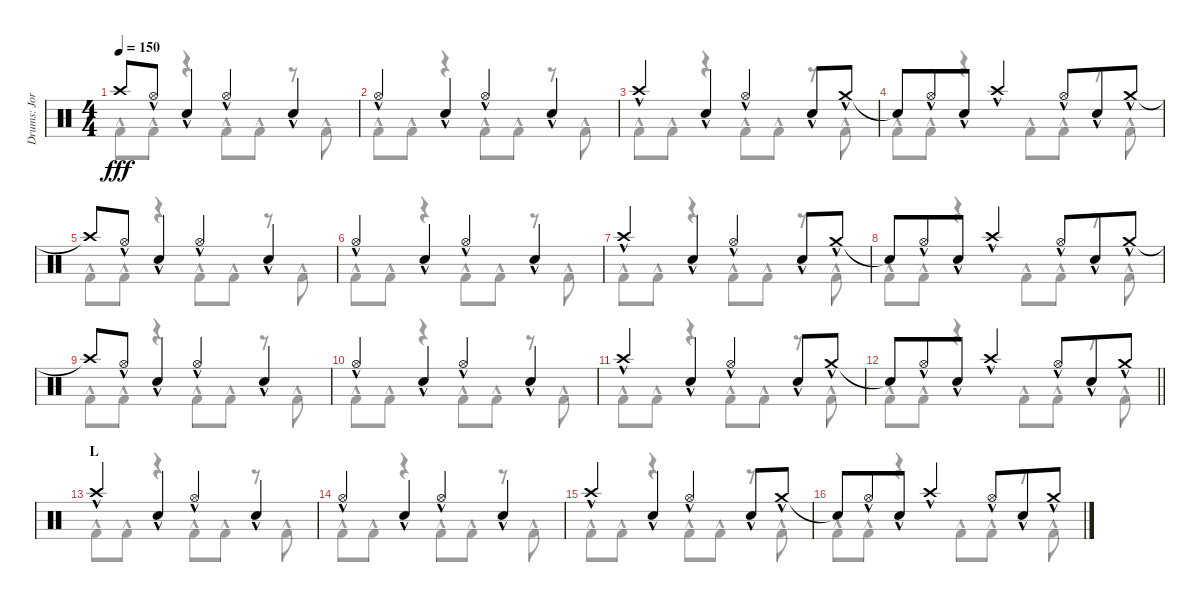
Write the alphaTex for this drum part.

\track ("Drums: Jorg" "Drums: Jor") {instrument percussion}
\staff {score}
\articulation defaults
\voice
\ts (4 4)
\tempo 150
\clef neutral
\ks c "Crash high (hit)"{t}.8{dy fff} "Hi-Hat (open)"{hac}.8{beam merge} "Snare (hit) 2"{hac}.4 "Hi-Hat (open)"{hac}.4{beam merge} "Snare (hit) 2"{hac}.4
|
"Hi-Hat (open)"{hac}.4{beam merge} "Snare (hit) 2"{hac}.4 "Hi-Hat (open)"{hac}.4{beam merge} "Snare (hit) 2"{hac}.4 |
"Crash high (hit)"{hac}.4{beam merge} "Snare (hit) 2"{hac}.4 "Hi-Hat (open)"{hac}.4{beam merge} "Snare (hit) 2"{hac}.8 "Crash medium (hit)"{hac}.8 |
"Snare (hit)"{t}.8 "Hi-Hat (open)"{hac}.8{beam merge} "Snare (hit) 2"{hac}.8 "Crash high (hit)"{hac}.4 "Hi-Hat (open)"{hac}.8{beam merge} "Snare (hit) 2"{hac}.8 "Crash medium (hit)"{hac}.8 |
"Crash high (hit)"{t}.8 "Hi-Hat (open)"{hac}.8{beam merge} "Snare (hit) 2"{hac}.4 "Hi-Hat (open)"{hac}.4{beam merge} "Snare (hit) 2"{hac}.4 |
"Hi-Hat (open)"{hac}.4{beam merge} "Snare (hit) 2"{hac}.4 "Hi-Hat (open)"{hac}.4{beam merge} "Snare (hit) 2"{hac}.4 |
"Crash high (hit)"{hac}.4{beam merge} "Snare (hit) 2"{hac}.4 "Hi-Hat (open)"{hac}.4{beam merge} "Snare (hit) 2"{hac}.8 "Crash medium (hit)"{hac}.8 |
"Snare (hit)"{t}.8 "Hi-Hat (open)"{hac}.8{beam merge} "Snare (hit) 2"{hac}.8 "Crash high (hit)"{hac}.4 "Hi-Hat (open)"{hac}.8{beam merge} "Snare (hit) 2"{hac}.8 "Crash medium (hit)"{hac}.8 |
"Crash high (hit)"{t}.8 "Hi-Hat (open)"{hac}.8{beam merge} "Snare (hit) 2"{hac}.4 "Hi-Hat (open)"{hac}.4{beam merge} "Snare (hit) 2"{hac}.4 |
"Hi-Hat (open)"{hac}.4{beam merge} "Snare (hit) 2"{hac}.4 "Hi-Hat (open)"{hac}.4{beam merge} "Snare (hit) 2"{hac}.4 |
"Crash high (hit)"{hac}.4{beam merge} "Snare (hit) 2"{hac}.4 "Hi-Hat (open)"{hac}.4{beam merge} "Snare (hit) 2"{hac}.8 "Crash medium (hit)"{hac}.8 |
\barLineRight lightlight "Snare (hit)"{t}.8 "Hi-Hat (open)"{hac}.8{beam merge} "Snare (hit) 2"{hac}.8 "Crash high (hit)"{hac}.4 "Hi-Hat (open)"{hac}.8{beam merge} "Snare (hit) 2"{hac}.8 "Crash medium (hit)"{hac}.8
|
\section ("" "L")
"Crash high (hit)"{hac}.4{beam merge} "Snare (hit) 2"{hac}.4 "Hi-Hat (open)"{hac}.4{beam merge} "Snare (hit) 2"{hac}.4 |
"Hi-Hat (open)"{hac}.4{beam merge} "Snare (hit) 2"{hac}.4 "Hi-Hat (open)"{hac}.4{beam merge} "Snare (hit) 2"{hac}.4 |
"Crash high (hit)"{hac}.4{beam merge} "Snare (hit) 2"{hac}.4 "Hi-Hat (open)"{hac}.4{beam merge} "Snare (hit) 2"{hac}.8 "Crash medium (hit)"{hac}.8 |
"Snare (hit)"{t}.8 "Hi-Hat (open)"{hac}.8{beam merge} "Snare (hit) 2"{hac}.8 "Crash high (hit)"{hac}.4 "Hi-Hat (open)"{hac}.8{beam merge} "Snare (hit) 2"{hac}.8 "Crash medium (hit)"{hac}.8
\voice
\clef neutral
\ottava regular
\simile none
\ks c "Kick (hit) 2"{hac}.8{dy fff} "Kick (hit) 2"{hac}.8
r.4 "Kick (hit) 2"{hac}.8 "Kick (hit) 2"{hac}.8 r.8 "Kick (hit) 2"{hac}.8 |
"Kick (hit) 2"{hac}.8 "Kick (hit) 2"{hac}.8 r.4 "Kick (hit) 2"{hac}.8 "Kick (hit) 2"{hac}.8 r.8 "Kick (hit) 2"{hac}.8 |
"Kick (hit) 2"{hac}.8 "Kick (hit) 2"{hac}.8 r.4 "Kick (hit) 2"{hac}.8 "Kick (hit) 2"{hac}.8 r.8 "Kick (hit) 2"{hac}.8 |
"Kick (hit) 2"{hac}.8 "Kick (hit) 2"{hac}.8 r.4 "Kick (hit) 2"{hac}.8 "Kick (hit) 2"{hac}.8 r.8 "Kick (hit) 2"{hac}.8 |
"Kick (hit) 2"{hac}.8 "Kick (hit) 2"{hac}.8 r.4 "Kick (hit) 2"{hac}.8 "Kick (hit) 2"{hac}.8 r.8 "Kick (hit) 2"{hac}.8 |
"Kick (hit) 2"{hac}.8 "Kick (hit) 2"{hac}.8 r.4 "Kick (hit) 2"{hac}.8 "Kick (hit) 2"{hac}.8 r.8 "Kick (hit) 2"{hac}.8 |
"Kick (hit) 2"{hac}.8 "Kick (hit) 2"{hac}.8 r.4 "Kick (hit) 2"{hac}.8 "Kick (hit) 2"{hac}.8 r.8 "Kick (hit) 2"{hac}.8 |
"Kick (hit) 2"{hac}.8 "Kick (hit) 2"{hac}.8 r.4 "Kick (hit) 2"{hac}.8 "Kick (hit) 2"{hac}.8 r.8 "Kick (hit) 2"{hac}.8 |
"Kick (hit) 2"{hac}.8 "Kick (hit) 2"{hac}.8 r.4 "Kick (hit) 2"{hac}.8 "Kick (hit) 2"{hac}.8 r.8 "Kick (hit) 2"{hac}.8 |
"Kick (hit) 2"{hac}.8 "Kick (hit) 2"{hac}.8 r.4 "Kick (hit) 2"{hac}.8 "Kick (hit) 2"{hac}.8 r.8 "Kick (hit) 2"{hac}.8 |
"Kick (hit) 2"{hac}.8 "Kick (hit) 2"{hac}.8 r.4 "Kick (hit) 2"{hac}.8 "Kick (hit) 2"{hac}.8 r.8 "Kick (hit) 2"{hac}.8 |
\barLineRight lightlight "Kick (hit) 2"{hac}.8 "Kick (hit) 2"{hac}.8
r.4 "Kick (hit) 2"{hac}.8 "Kick (hit) 2"{hac}.8 r.8 "Kick (hit) 2"{hac}.8 |
"Kick (hit) 2"{hac}.8 "Kick (hit) 2"{hac}.8 r.4 "Kick (hit) 2"{hac}.8 "Kick (hit) 2"{hac}.8 r.8 "Kick (hit) 2"{hac}.8 |
"Kick (hit) 2"{hac}.8 "Kick (hit) 2"{hac}.8 r.4 "Kick (hit) 2"{hac}.8 "Kick (hit) 2"{hac}.8 r.8 "Kick (hit) 2"{hac}.8 |
"Kick (hit) 2"{hac}.8 "Kick (hit) 2"{hac}.8 r.4 "Kick (hit) 2"{hac}.8 "Kick (hit) 2"{hac}.8 r.8 "Kick (hit) 2"{hac}.8 |
"Kick (hit) 2"{hac}.8 "Kick (hit) 2"{hac}.8 r.4 "Kick (hit) 2"{hac}.8 "Kick (hit) 2"{hac}.8 r.8 "Kick (hit) 2"{hac}.8
